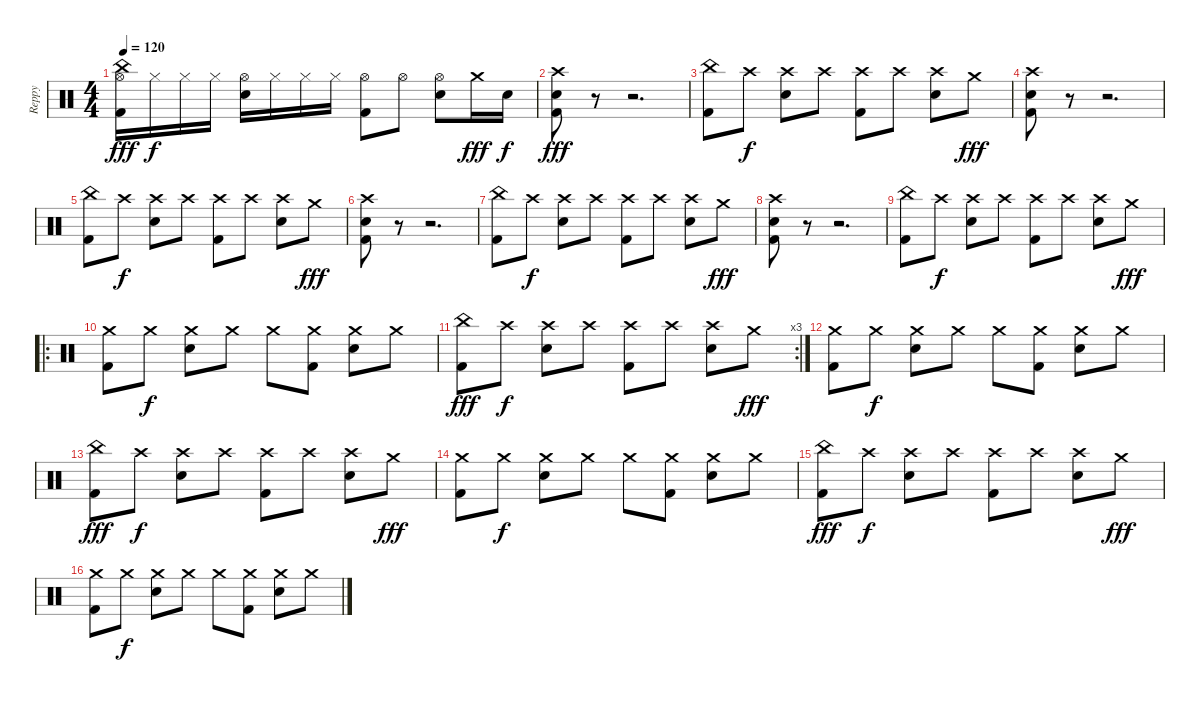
\track ("Reppy" "Reppy") {instrument percussion}
\staff {score}
\articulation defaults
\ts (4 4)
\tempo 120
\clef neutral
\ks c
("China (hit)" "Hi-Hat (open)" "Kick (hit) 2").16{dy fff} "Hi-Hat (closed)".16{dy f} "Hi-Hat (closed)".16 "Hi-Hat (closed)".16 ("Hi-Hat (open)" "Electric Snare (hit)").16 "Hi-Hat (closed)".16 "Hi-Hat (closed)".16 "Hi-Hat (closed)".16 ("Hi-Hat (open)" "Kick (hit) 2").8 "Hi-Hat (open)".8 ("Hi-Hat (open)" "Electric Snare (hit)").8 "Crash medium (hit)".16{dy fff} "Electric Snare (hit)".16{dy f} |
("Crash high (hit)" "Electric Snare (hit)" "Kick (hit) 2").8{dy fff} r.8 r.2{d} |
("China (hit)" "Kick (hit) 2").8 "Crash high (hit)".8{dy f} ("Crash high (hit)" "Electric Snare (hit)").8 "Crash high (hit)".8 ("Crash high (hit)" "Kick (hit) 2").8 "Crash high (hit)".8 ("Crash high (hit)" "Electric Snare (hit)").8 "Crash medium (hit)".8{dy fff} |
("Crash high (hit)" "Electric Snare (hit)" "Kick (hit) 2").8 r.8 r.2{d} |
("China (hit)" "Kick (hit) 2").8 "Crash high (hit)".8{dy f} ("Crash high (hit)" "Electric Snare (hit)").8 "Crash high (hit)".8 ("Crash high (hit)" "Kick (hit) 2").8 "Crash high (hit)".8 ("Crash high (hit)" "Electric Snare (hit)").8 "Crash medium (hit)".8{dy fff} |
("Crash high (hit)" "Electric Snare (hit)" "Kick (hit) 2").8 r.8 r.2{d} |
("China (hit)" "Kick (hit) 2").8 "Crash high (hit)".8{dy f} ("Crash high (hit)" "Electric Snare (hit)").8 "Crash high (hit)".8 ("Crash high (hit)" "Kick (hit) 2").8 "Crash high (hit)".8 ("Crash high (hit)" "Electric Snare (hit)").8 "Crash medium (hit)".8{dy fff} |
("Crash high (hit)" "Electric Snare (hit)" "Kick (hit) 2").8 r.8 r.2{d} |
("China (hit)" "Kick (hit) 2").8 "Crash high (hit)".8{dy f} ("Crash high (hit)" "Electric Snare (hit)").8 "Crash high (hit)".8 ("Crash high (hit)" "Kick (hit) 2").8 "Crash high (hit)".8 ("Crash high (hit)" "Electric Snare (hit)").8 "Crash medium (hit)".8{dy fff} |
\ro
("Crash medium (hit)" "Kick (hit) 2").8 "Crash medium (hit)".8{dy f} ("Crash medium (hit)" "Electric Snare (hit)").8 "Crash medium (hit)".8 "Crash medium (hit)".8 ("Crash medium (hit)" "Kick (hit) 2").8 ("Crash medium (hit)" "Electric Snare (hit)").8 "Crash medium (hit)".8 |
\rc 3
("China (hit)" "Kick (hit) 2").8{dy fff} "Crash high (hit)".8{dy f} ("Crash high (hit)" "Electric Snare (hit)").8 "Crash high (hit)".8 ("Crash high (hit)" "Kick (hit) 2").8 "Crash high (hit)".8 ("Crash high (hit)" "Electric Snare (hit)").8 "Crash medium (hit)".8{dy fff} |
("Crash medium (hit)" "Kick (hit) 2").8{volume 6} "Crash medium (hit)".8{dy f} ("Crash medium (hit)" "Electric Snare (hit)").8 "Crash medium (hit)".8 "Crash medium (hit)".8 ("Crash medium (hit)" "Kick (hit) 2").8 ("Crash medium (hit)" "Electric Snare (hit)").8 "Crash medium (hit)".8 |
("China (hit)" "Kick (hit) 2").8{dy fff} "Crash high (hit)".8{dy f} ("Crash high (hit)" "Electric Snare (hit)").8 "Crash high (hit)".8 ("Crash high (hit)" "Kick (hit) 2").8 "Crash high (hit)".8 ("Crash high (hit)" "Electric Snare (hit)").8 "Crash medium (hit)".8{dy fff} |
("Crash medium (hit)" "Kick (hit) 2").8 "Crash medium (hit)".8{dy f} ("Crash medium (hit)" "Electric Snare (hit)").8 "Crash medium (hit)".8 "Crash medium (hit)".8 ("Crash medium (hit)" "Kick (hit) 2").8 ("Crash medium (hit)" "Electric Snare (hit)").8 "Crash medium (hit)".8 |
("China (hit)" "Kick (hit) 2").8{dy fff volume 0} "Crash high (hit)".8{dy f} ("Crash high (hit)" "Electric Snare (hit)").8 "Crash high (hit)".8 ("Crash high (hit)" "Kick (hit) 2").8 "Crash high (hit)".8 ("Crash high (hit)" "Electric Snare (hit)").8 "Crash medium (hit)".8{dy fff} |
("Crash medium (hit)" "Kick (hit) 2").8 "Crash medium (hit)".8{dy f} ("Crash medium (hit)" "Electric Snare (hit)").8 "Crash medium (hit)".8 "Crash medium (hit)".8 ("Crash medium (hit)" "Kick (hit) 2").8 ("Crash medium (hit)" "Electric Snare (hit)").8 "Crash medium (hit)".8
